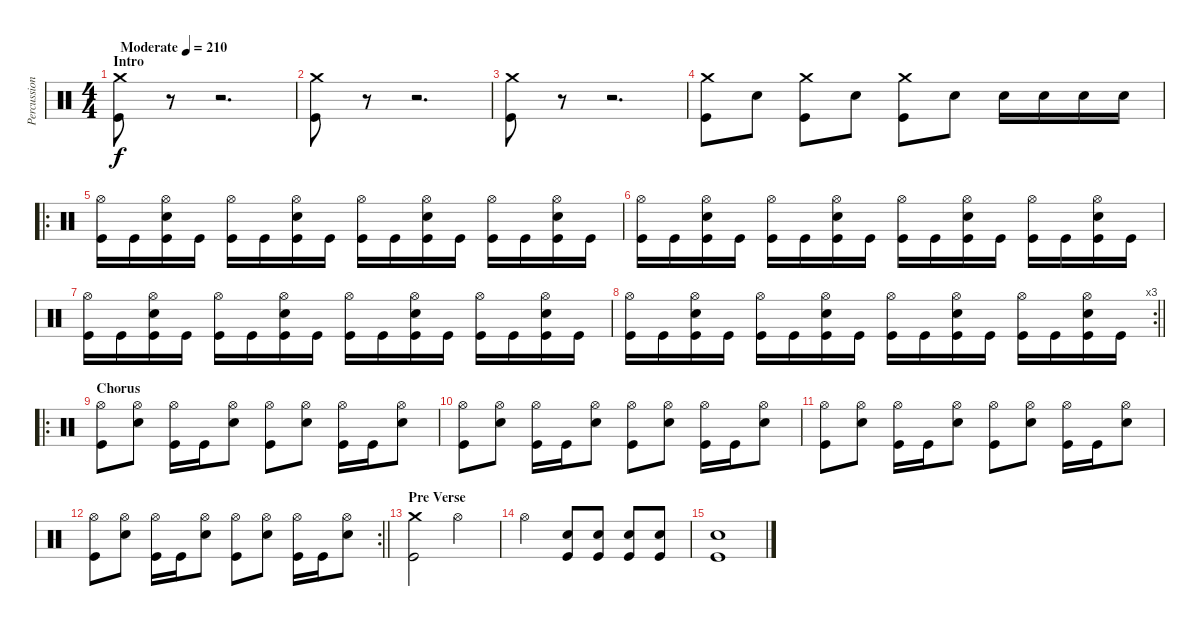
\track ("Percussion" "Percussion") {instrument percussion}
\staff {score}
\articulation defaults
\ts (4 4)
\section ("" "Intro")
\tempo (210 "Moderate")
\clef neutral
\ks c
("Crash medium (hit)" "Kick (hit)").8{dy f} r.8{volume 0} r.2{d} |
("Crash medium (hit)" "Kick (hit)").8{volume 13} r.8 r.2{d} |
("Crash medium (hit)" "Kick (hit)").8 r.8{volume 0} r.2{d} |
("Crash medium (hit)" "Kick (hit)").8{volume 13} "Snare (hit) 2".8 ("Crash medium (hit)" "Kick (hit)").8 "Snare (hit) 2".8 ("Crash medium (hit)" "Kick (hit)").8 "Snare (hit) 2".8 "Snare (hit) 2".16 "Snare (hit) 2".16 "Snare (hit) 2".16 "Snare (hit) 2".16 |
\ro
("Hi-Hat (open)" "Kick (hit)").16 "Kick (hit)".16 ("Hi-Hat (open)" "Snare (hit) 2" "Kick (hit)").16 "Kick (hit)".16 ("Hi-Hat (open)" "Kick (hit)").16 "Kick (hit)".16 ("Hi-Hat (open)" "Snare (hit) 2" "Kick (hit)").16 "Kick (hit)".16 ("Hi-Hat (open)" "Kick (hit)").16 "Kick (hit)".16 ("Hi-Hat (open)" "Snare (hit) 2" "Kick (hit)").16 "Kick (hit)".16 ("Hi-Hat (open)" "Kick (hit)").16 "Kick (hit)".16 ("Hi-Hat (open)" "Snare (hit) 2" "Kick (hit)").16 "Kick (hit)".16 |
("Hi-Hat (open)" "Kick (hit)").16 "Kick (hit)".16 ("Hi-Hat (open)" "Snare (hit) 2" "Kick (hit)").16 "Kick (hit)".16 ("Hi-Hat (open)" "Kick (hit)").16 "Kick (hit)".16 ("Hi-Hat (open)" "Snare (hit) 2" "Kick (hit)").16 "Kick (hit)".16 ("Hi-Hat (open)" "Kick (hit)").16 "Kick (hit)".16 ("Hi-Hat (open)" "Snare (hit) 2" "Kick (hit)").16 "Kick (hit)".16 ("Hi-Hat (open)" "Kick (hit)").16 "Kick (hit)".16 ("Hi-Hat (open)" "Snare (hit) 2" "Kick (hit)").16 "Kick (hit)".16 |
("Hi-Hat (open)" "Kick (hit)").16 "Kick (hit)".16 ("Hi-Hat (open)" "Snare (hit) 2" "Kick (hit)").16 "Kick (hit)".16 ("Hi-Hat (open)" "Kick (hit)").16 "Kick (hit)".16 ("Hi-Hat (open)" "Snare (hit) 2" "Kick (hit)").16 "Kick (hit)".16 ("Hi-Hat (open)" "Kick (hit)").16 "Kick (hit)".16 ("Hi-Hat (open)" "Snare (hit) 2" "Kick (hit)").16 "Kick (hit)".16 ("Hi-Hat (open)" "Kick (hit)").16 "Kick (hit)".16 ("Hi-Hat (open)" "Snare (hit) 2" "Kick (hit)").16 "Kick (hit)".16 |
\rc 3
\barLineRight lightlight
("Hi-Hat (open)" "Kick (hit)").16 "Kick (hit)".16 ("Hi-Hat (open)" "Snare (hit) 2" "Kick (hit)").16 "Kick (hit)".16 ("Hi-Hat (open)" "Kick (hit)").16 "Kick (hit)".16 ("Hi-Hat (open)" "Snare (hit) 2" "Kick (hit)").16 "Kick (hit)".16 ("Hi-Hat (open)" "Kick (hit)").16 "Kick (hit)".16 ("Hi-Hat (open)" "Snare (hit) 2" "Kick (hit)").16 "Kick (hit)".16 ("Hi-Hat (open)" "Kick (hit)").16 "Kick (hit)".16 ("Hi-Hat (open)" "Snare (hit) 2" "Kick (hit)").16 "Kick (hit)".16 |
\ro
\section ("" "Chorus")
("Hi-Hat (open)" "Kick (hit)").8 ("Hi-Hat (open)" "Snare (hit) 2").8 ("Hi-Hat (open)" "Kick (hit)").16 "Kick (hit)".16 ("Hi-Hat (open)" "Snare (hit) 2").8 ("Hi-Hat (open)" "Kick (hit)").8 ("Hi-Hat (open)" "Snare (hit) 2").8 ("Hi-Hat (open)" "Kick (hit)").16 "Kick (hit)".16 ("Hi-Hat (open)" "Snare (hit) 2").8 |
("Hi-Hat (open)" "Kick (hit)").8 ("Hi-Hat (open)" "Snare (hit) 2").8 ("Hi-Hat (open)" "Kick (hit)").16 "Kick (hit)".16 ("Hi-Hat (open)" "Snare (hit) 2").8 ("Hi-Hat (open)" "Kick (hit)").8 ("Hi-Hat (open)" "Snare (hit) 2").8 ("Hi-Hat (open)" "Kick (hit)").16 "Kick (hit)".16 ("Hi-Hat (open)" "Snare (hit) 2").8 |
("Hi-Hat (open)" "Kick (hit)").8 ("Hi-Hat (open)" "Snare (hit) 2").8 ("Hi-Hat (open)" "Kick (hit)").16 "Kick (hit)".16 ("Hi-Hat (open)" "Snare (hit) 2").8 ("Hi-Hat (open)" "Kick (hit)").8 ("Hi-Hat (open)" "Snare (hit) 2").8 ("Hi-Hat (open)" "Kick (hit)").16 "Kick (hit)".16 ("Hi-Hat (open)" "Snare (hit) 2").8 |
\rc 2
\barLineRight lightlight
("Hi-Hat (open)" "Kick (hit)").8 ("Hi-Hat (open)" "Snare (hit) 2").8 ("Hi-Hat (open)" "Kick (hit)").16 "Kick (hit)".16 ("Hi-Hat (open)" "Snare (hit) 2").8 ("Hi-Hat (open)" "Kick (hit)").8 ("Hi-Hat (open)" "Snare (hit) 2").8 ("Hi-Hat (open)" "Kick (hit)").16 "Kick (hit)".16 ("Hi-Hat (open)" "Snare (hit) 2").8 |
\section ("" "Pre Verse")
("Crash medium (hit)" "Kick (hit)").2 "Hi-Hat (open)".2 |
"Hi-Hat (open)".2 ("Snare (hit) 2" "Kick (hit)").8 ("Snare (hit) 2" "Kick (hit)").8 ("Snare (hit) 2" "Kick (hit)").8 ("Snare (hit) 2" "Kick (hit)").8 |
("Snare (hit) 2" "Kick (hit)").1
